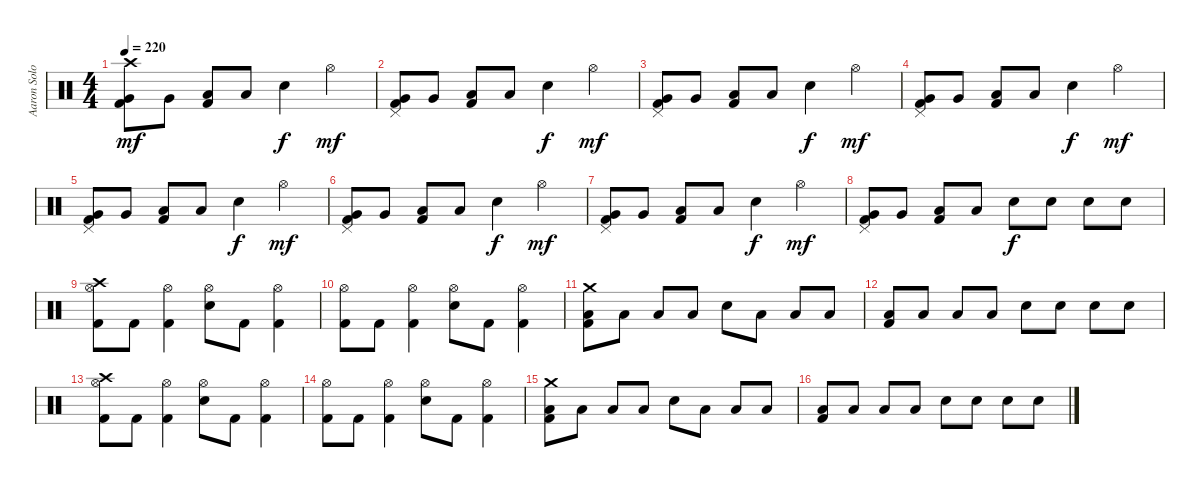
\track ("Aaron Solowoniuk" "Aaron Solo") {instrument percussion}
\staff {score}
\articulation defaults
\ts (4 4)
\tempo 220
\clef neutral
\ks c
("Crash high (hit)" "Very Low Tom (hit)" "Kick (hit) 2").8{dy mf} "Very Low Tom (hit)".8 ("Low Floor Tom (hit)" "Kick (hit) 2").8 "Low Floor Tom (hit)".8 "Snare (hit) 2".4{dy f} "Hi-Hat (open)".4{dy mf} |
("Pedal Hi-Hat (hit)" "Very Low Tom (hit)" "Kick (hit) 2").8 "Very Low Tom (hit)".8 ("Low Floor Tom (hit)" "Kick (hit) 2").8 "Low Floor Tom (hit)".8 "Snare (hit) 2".4{dy f} "Hi-Hat (open)".4{dy mf} |
("Pedal Hi-Hat (hit)" "Very Low Tom (hit)" "Kick (hit) 2").8 "Very Low Tom (hit)".8 ("Low Floor Tom (hit)" "Kick (hit) 2").8 "Low Floor Tom (hit)".8 "Snare (hit) 2".4{dy f} "Hi-Hat (open)".4{dy mf} |
("Pedal Hi-Hat (hit)" "Very Low Tom (hit)" "Kick (hit) 2").8 "Very Low Tom (hit)".8 ("Low Floor Tom (hit)" "Kick (hit) 2").8 "Low Floor Tom (hit)".8 "Snare (hit) 2".4{dy f} "Hi-Hat (open)".4{dy mf} |
("Pedal Hi-Hat (hit)" "Very Low Tom (hit)" "Kick (hit) 2").8 "Very Low Tom (hit)".8 ("Low Floor Tom (hit)" "Kick (hit) 2").8 "Low Floor Tom (hit)".8 "Snare (hit) 2".4{dy f} "Hi-Hat (open)".4{dy mf} |
("Pedal Hi-Hat (hit)" "Very Low Tom (hit)" "Kick (hit) 2").8 "Very Low Tom (hit)".8 ("Low Floor Tom (hit)" "Kick (hit) 2").8 "Low Floor Tom (hit)".8 "Snare (hit) 2".4{dy f} "Hi-Hat (open)".4{dy mf} |
("Pedal Hi-Hat (hit)" "Very Low Tom (hit)" "Kick (hit) 2").8 "Very Low Tom (hit)".8 ("Low Floor Tom (hit)" "Kick (hit) 2").8 "Low Floor Tom (hit)".8 "Snare (hit) 2".4{dy f} "Hi-Hat (open)".4{dy mf} |
("Pedal Hi-Hat (hit)" "Very Low Tom (hit)" "Kick (hit) 2").8 "Very Low Tom (hit)".8 ("Low Floor Tom (hit)" "Kick (hit) 2").8 "Low Floor Tom (hit)".8 "Snare (hit) 2".8{dy f} "Snare (hit) 2".8 "Snare (hit) 2".8 "Snare (hit) 2".8 |
("Crash high (hit)" "Hi-Hat (open)" "Kick (hit) 2").8 "Kick (hit) 2".8 ("Hi-Hat (open)" "Kick (hit) 2").4 ("Hi-Hat (open)" "Snare (hit) 2").8 "Kick (hit) 2".8 ("Hi-Hat (open)" "Kick (hit) 2").4 |
("Hi-Hat (open)" "Kick (hit) 2").8 "Kick (hit) 2".8 ("Hi-Hat (open)" "Kick (hit) 2").4 ("Hi-Hat (open)" "Snare (hit) 2").8 "Kick (hit) 2".8 ("Hi-Hat (open)" "Kick (hit) 2").4 |
("Crash medium (hit)" "Low Floor Tom (hit)" "Kick (hit) 2").8 "Low Floor Tom (hit)".8 "Low Floor Tom (hit)".8 "Low Tom (hit)".8 "Snare (hit) 2".8 "Low Floor Tom (hit)".8 "Low Floor Tom (hit)".8 "Low Floor Tom (hit)".8 |
("Low Tom (hit)" "Kick (hit) 2").8 "Low Floor Tom (hit)".8 "Low Floor Tom (hit)".8 "Low Floor Tom (hit)".8 "Snare (hit) 2".8 "Snare (hit) 2".8 "Snare (hit) 2".8 "Snare (hit) 2".8 |
("Crash high (hit)" "Hi-Hat (open)" "Kick (hit) 2").8 "Kick (hit) 2".8 ("Hi-Hat (open)" "Kick (hit) 2").4 ("Hi-Hat (open)" "Snare (hit) 2").8 "Kick (hit) 2".8 ("Hi-Hat (open)" "Kick (hit) 2").4 |
("Hi-Hat (open)" "Kick (hit) 2").8 "Kick (hit) 2".8 ("Hi-Hat (open)" "Kick (hit) 2").4 ("Hi-Hat (open)" "Snare (hit) 2").8 "Kick (hit) 2".8 ("Hi-Hat (open)" "Kick (hit) 2").4 |
("Crash medium (hit)" "Low Floor Tom (hit)" "Kick (hit) 2").8 "Low Floor Tom (hit)".8 "Low Floor Tom (hit)".8 "Low Tom (hit)".8 "Snare (hit) 2".8 "Low Floor Tom (hit)".8 "Low Floor Tom (hit)".8 "Low Floor Tom (hit)".8 |
("Low Tom (hit)" "Kick (hit) 2").8 "Low Floor Tom (hit)".8 "Low Floor Tom (hit)".8 "Low Floor Tom (hit)".8 "Snare (hit) 2".8 "Snare (hit) 2".8 "Snare (hit) 2".8 "Snare (hit) 2".8
